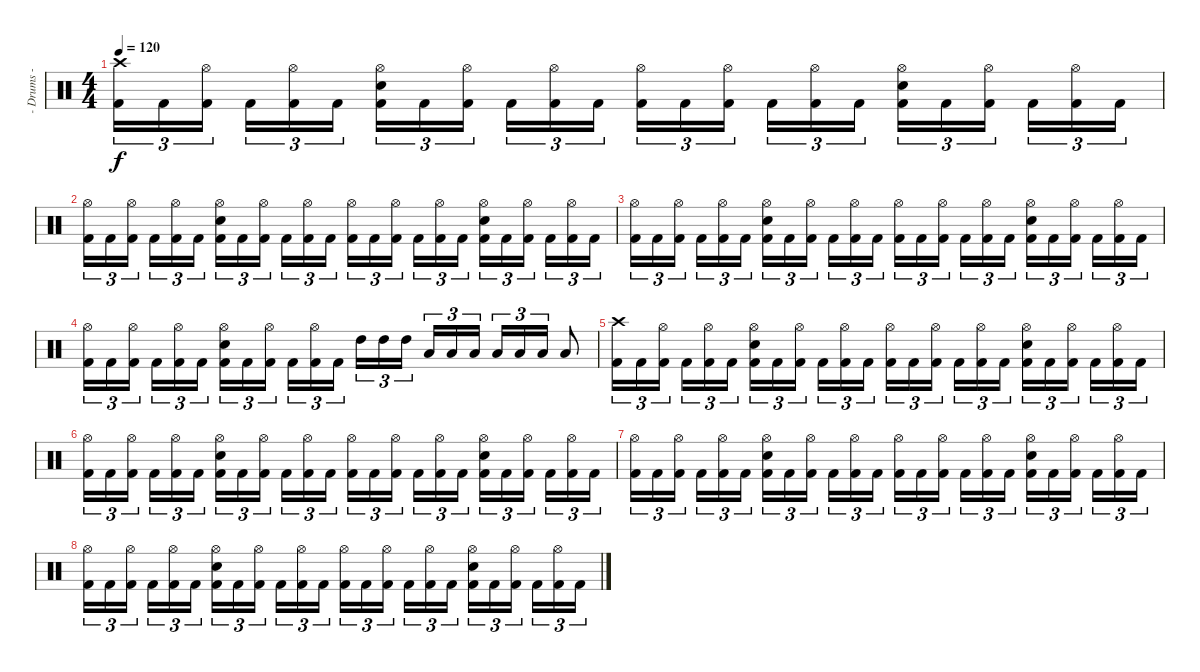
\track ("- Drums -" "- Drums -") {instrument percussion}
\staff {score}
\articulation defaults
\ts (4 4)
\tempo 120
\clef neutral
\ks c
("Crash high (hit)" "Kick (hit) 2").16{tu (3 2) dy f} "Kick (hit) 2".16{tu (3 2)} ("Hi-Hat (open)" "Kick (hit) 2").16{tu (3 2)} "Kick (hit) 2".16{tu (3 2)} ("Hi-Hat (open)" "Kick (hit) 2").16{tu (3 2)} "Kick (hit) 2".16{tu (3 2)} ("Hi-Hat (open)" "Electric Snare (hit)" "Kick (hit) 2").16{tu (3 2)} "Kick (hit) 2".16{tu (3 2)} ("Hi-Hat (open)" "Kick (hit) 2").16{tu (3 2)} "Kick (hit) 2".16{tu (3 2)} ("Hi-Hat (open)" "Kick (hit) 2").16{tu (3 2)} "Kick (hit) 2".16{tu (3 2)} ("Hi-Hat (open)" "Kick (hit) 2").16{tu (3 2)} "Kick (hit) 2".16{tu (3 2)} ("Hi-Hat (open)" "Kick (hit) 2").16{tu (3 2)} "Kick (hit) 2".16{tu (3 2)} ("Hi-Hat (open)" "Kick (hit) 2").16{tu (3 2)} "Kick (hit) 2".16{tu (3 2)} ("Hi-Hat (open)" "Electric Snare (hit)" "Kick (hit) 2").16{tu (3 2)} "Kick (hit) 2".16{tu (3 2)} ("Hi-Hat (open)" "Kick (hit) 2").16{tu (3 2)} "Kick (hit) 2".16{tu (3 2)} ("Hi-Hat (open)" "Kick (hit) 2").16{tu (3 2)} "Kick (hit) 2".16{tu (3 2)} |
("Hi-Hat (open)" "Kick (hit) 2").16{tu (3 2)} "Kick (hit) 2".16{tu (3 2)} ("Hi-Hat (open)" "Kick (hit) 2").16{tu (3 2)} "Kick (hit) 2".16{tu (3 2)} ("Hi-Hat (open)" "Kick (hit) 2").16{tu (3 2)} "Kick (hit) 2".16{tu (3 2)} ("Hi-Hat (open)" "Electric Snare (hit)" "Kick (hit) 2").16{tu (3 2)} "Kick (hit) 2".16{tu (3 2)} ("Hi-Hat (open)" "Kick (hit) 2").16{tu (3 2)} "Kick (hit) 2".16{tu (3 2)} ("Hi-Hat (open)" "Kick (hit) 2").16{tu (3 2)} "Kick (hit) 2".16{tu (3 2)} ("Hi-Hat (open)" "Kick (hit) 2").16{tu (3 2)} "Kick (hit) 2".16{tu (3 2)} ("Hi-Hat (open)" "Kick (hit) 2").16{tu (3 2)} "Kick (hit) 2".16{tu (3 2)} ("Hi-Hat (open)" "Kick (hit) 2").16{tu (3 2)} "Kick (hit) 2".16{tu (3 2)} ("Hi-Hat (open)" "Electric Snare (hit)" "Kick (hit) 2").16{tu (3 2)} "Kick (hit) 2".16{tu (3 2)} ("Hi-Hat (open)" "Kick (hit) 2").16{tu (3 2)} "Kick (hit) 2".16{tu (3 2)} ("Hi-Hat (open)" "Kick (hit) 2").16{tu (3 2)} "Kick (hit) 2".16{tu (3 2)} |
("Hi-Hat (open)" "Kick (hit) 2").16{tu (3 2)} "Kick (hit) 2".16{tu (3 2)} ("Hi-Hat (open)" "Kick (hit) 2").16{tu (3 2)} "Kick (hit) 2".16{tu (3 2)} ("Hi-Hat (open)" "Kick (hit) 2").16{tu (3 2)} "Kick (hit) 2".16{tu (3 2)} ("Hi-Hat (open)" "Electric Snare (hit)" "Kick (hit) 2").16{tu (3 2)} "Kick (hit) 2".16{tu (3 2)} ("Hi-Hat (open)" "Kick (hit) 2").16{tu (3 2)} "Kick (hit) 2".16{tu (3 2)} ("Hi-Hat (open)" "Kick (hit) 2").16{tu (3 2)} "Kick (hit) 2".16{tu (3 2)} ("Hi-Hat (open)" "Kick (hit) 2").16{tu (3 2)} "Kick (hit) 2".16{tu (3 2)} ("Hi-Hat (open)" "Kick (hit) 2").16{tu (3 2)} "Kick (hit) 2".16{tu (3 2)} ("Hi-Hat (open)" "Kick (hit) 2").16{tu (3 2)} "Kick (hit) 2".16{tu (3 2)} ("Hi-Hat (open)" "Electric Snare (hit)" "Kick (hit) 2").16{tu (3 2)} "Kick (hit) 2".16{tu (3 2)} ("Hi-Hat (open)" "Kick (hit) 2").16{tu (3 2)} "Kick (hit) 2".16{tu (3 2)} ("Hi-Hat (open)" "Kick (hit) 2").16{tu (3 2)} "Kick (hit) 2".16{tu (3 2)} |
("Hi-Hat (open)" "Kick (hit) 2").16{tu (3 2)} "Kick (hit) 2".16{tu (3 2)} ("Hi-Hat (open)" "Kick (hit) 2").16{tu (3 2)} "Kick (hit) 2".16{tu (3 2)} ("Hi-Hat (open)" "Kick (hit) 2").16{tu (3 2)} "Kick (hit) 2".16{tu (3 2)} ("Hi-Hat (open)" "Electric Snare (hit)" "Kick (hit) 2").16{tu (3 2)} "Kick (hit) 2".16{tu (3 2)} ("Hi-Hat (open)" "Kick (hit) 2").16{tu (3 2)} "Kick (hit) 2".16{tu (3 2)} ("Hi-Hat (open)" "Kick (hit) 2").16{tu (3 2)} "Kick (hit) 2".16{tu (3 2)} "High Tom (hit)".16{tu (3 2)} "High Tom (hit)".16{tu (3 2)} "High Tom (hit)".16{tu (3 2)} "Low Tom (hit)".16{tu (3 2)} "Low Tom (hit)".16{tu (3 2)} "Low Tom (hit)".16{tu (3 2)} "Low Floor Tom (hit)".16{tu (3 2)} "Low Floor Tom (hit)".16{tu (3 2)} "Low Floor Tom (hit)".16{tu (3 2)} "Low Floor Tom (hit)".8 |
("Crash high (hit)" "Kick (hit) 2").16{tu (3 2)} "Kick (hit) 2".16{tu (3 2)} ("Hi-Hat (open)" "Kick (hit) 2").16{tu (3 2)} "Kick (hit) 2".16{tu (3 2)} ("Hi-Hat (open)" "Kick (hit) 2").16{tu (3 2)} "Kick (hit) 2".16{tu (3 2)} ("Hi-Hat (open)" "Electric Snare (hit)" "Kick (hit) 2").16{tu (3 2)} "Kick (hit) 2".16{tu (3 2)} ("Hi-Hat (open)" "Kick (hit) 2").16{tu (3 2)} "Kick (hit) 2".16{tu (3 2)} ("Hi-Hat (open)" "Kick (hit) 2").16{tu (3 2)} "Kick (hit) 2".16{tu (3 2)} ("Hi-Hat (open)" "Kick (hit) 2").16{tu (3 2)} "Kick (hit) 2".16{tu (3 2)} ("Hi-Hat (open)" "Kick (hit) 2").16{tu (3 2)} "Kick (hit) 2".16{tu (3 2)} ("Hi-Hat (open)" "Kick (hit) 2").16{tu (3 2)} "Kick (hit) 2".16{tu (3 2)} ("Hi-Hat (open)" "Electric Snare (hit)" "Kick (hit) 2").16{tu (3 2)} "Kick (hit) 2".16{tu (3 2)} ("Hi-Hat (open)" "Kick (hit) 2").16{tu (3 2)} "Kick (hit) 2".16{tu (3 2)} ("Hi-Hat (open)" "Kick (hit) 2").16{tu (3 2)} "Kick (hit) 2".16{tu (3 2)} |
("Hi-Hat (open)" "Kick (hit) 2").16{tu (3 2)} "Kick (hit) 2".16{tu (3 2)} ("Hi-Hat (open)" "Kick (hit) 2").16{tu (3 2)} "Kick (hit) 2".16{tu (3 2)} ("Hi-Hat (open)" "Kick (hit) 2").16{tu (3 2)} "Kick (hit) 2".16{tu (3 2)} ("Hi-Hat (open)" "Electric Snare (hit)" "Kick (hit) 2").16{tu (3 2)} "Kick (hit) 2".16{tu (3 2)} ("Hi-Hat (open)" "Kick (hit) 2").16{tu (3 2)} "Kick (hit) 2".16{tu (3 2)} ("Hi-Hat (open)" "Kick (hit) 2").16{tu (3 2)} "Kick (hit) 2".16{tu (3 2)} ("Hi-Hat (open)" "Kick (hit) 2").16{tu (3 2)} "Kick (hit) 2".16{tu (3 2)} ("Hi-Hat (open)" "Kick (hit) 2").16{tu (3 2)} "Kick (hit) 2".16{tu (3 2)} ("Hi-Hat (open)" "Kick (hit) 2").16{tu (3 2)} "Kick (hit) 2".16{tu (3 2)} ("Hi-Hat (open)" "Electric Snare (hit)" "Kick (hit) 2").16{tu (3 2)} "Kick (hit) 2".16{tu (3 2)} ("Hi-Hat (open)" "Kick (hit) 2").16{tu (3 2)} "Kick (hit) 2".16{tu (3 2)} ("Hi-Hat (open)" "Kick (hit) 2").16{tu (3 2)} "Kick (hit) 2".16{tu (3 2)} |
("Hi-Hat (open)" "Kick (hit) 2").16{tu (3 2)} "Kick (hit) 2".16{tu (3 2)} ("Hi-Hat (open)" "Kick (hit) 2").16{tu (3 2)} "Kick (hit) 2".16{tu (3 2)} ("Hi-Hat (open)" "Kick (hit) 2").16{tu (3 2)} "Kick (hit) 2".16{tu (3 2)} ("Hi-Hat (open)" "Electric Snare (hit)" "Kick (hit) 2").16{tu (3 2)} "Kick (hit) 2".16{tu (3 2)} ("Hi-Hat (open)" "Kick (hit) 2").16{tu (3 2)} "Kick (hit) 2".16{tu (3 2)} ("Hi-Hat (open)" "Kick (hit) 2").16{tu (3 2)} "Kick (hit) 2".16{tu (3 2)} ("Hi-Hat (open)" "Kick (hit) 2").16{tu (3 2)} "Kick (hit) 2".16{tu (3 2)} ("Hi-Hat (open)" "Kick (hit) 2").16{tu (3 2)} "Kick (hit) 2".16{tu (3 2)} ("Hi-Hat (open)" "Kick (hit) 2").16{tu (3 2)} "Kick (hit) 2".16{tu (3 2)} ("Hi-Hat (open)" "Electric Snare (hit)" "Kick (hit) 2").16{tu (3 2)} "Kick (hit) 2".16{tu (3 2)} ("Hi-Hat (open)" "Kick (hit) 2").16{tu (3 2)} "Kick (hit) 2".16{tu (3 2)} ("Hi-Hat (open)" "Kick (hit) 2").16{tu (3 2)} "Kick (hit) 2".16{tu (3 2)} |
("Hi-Hat (open)" "Kick (hit) 2").16{tu (3 2)} "Kick (hit) 2".16{tu (3 2)} ("Hi-Hat (open)" "Kick (hit) 2").16{tu (3 2)} "Kick (hit) 2".16{tu (3 2)} ("Hi-Hat (open)" "Kick (hit) 2").16{tu (3 2)} "Kick (hit) 2".16{tu (3 2)} ("Hi-Hat (open)" "Electric Snare (hit)" "Kick (hit) 2").16{tu (3 2)} "Kick (hit) 2".16{tu (3 2)} ("Hi-Hat (open)" "Kick (hit) 2").16{tu (3 2)} "Kick (hit) 2".16{tu (3 2)} ("Hi-Hat (open)" "Kick (hit) 2").16{tu (3 2)} "Kick (hit) 2".16{tu (3 2)} ("Hi-Hat (open)" "Kick (hit) 2").16{tu (3 2)} "Kick (hit) 2".16{tu (3 2)} ("Hi-Hat (open)" "Kick (hit) 2").16{tu (3 2)} "Kick (hit) 2".16{tu (3 2)} ("Hi-Hat (open)" "Kick (hit) 2").16{tu (3 2)} "Kick (hit) 2".16{tu (3 2)} ("Hi-Hat (open)" "Electric Snare (hit)" "Kick (hit) 2").16{tu (3 2)} "Kick (hit) 2".16{tu (3 2)} ("Hi-Hat (open)" "Kick (hit) 2").16{tu (3 2)} "Kick (hit) 2".16{tu (3 2)} ("Hi-Hat (open)" "Kick (hit) 2").16{tu (3 2)} "Kick (hit) 2".16{tu (3 2)}
